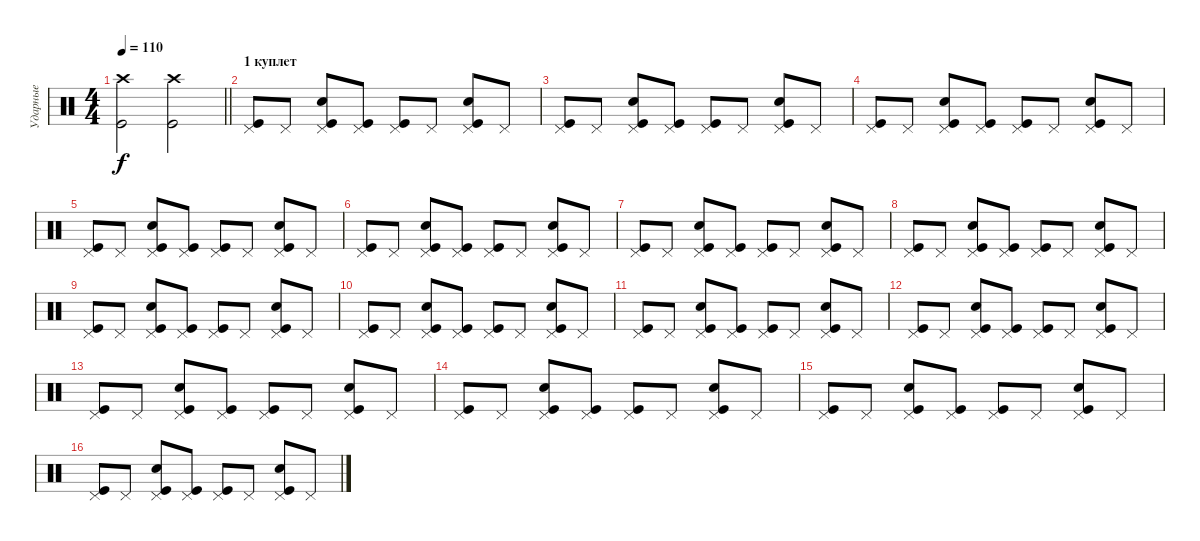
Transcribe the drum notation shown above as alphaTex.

\track ("Ударные" "Ударные") {instrument percussion}
\staff {score}
\articulation defaults
\ts (4 4)
\tempo 110
\clef neutral
\barLineRight lightlight
\ks c
("Kick (hit)" "Crash high (hit)").2{dy f} ("Kick (hit)" "Crash high (hit)").2 |
\section ("" "1 куплет")
("Pedal Hi-Hat (hit)" "Kick (hit)").8 "Pedal Hi-Hat (hit)".8 ("Pedal Hi-Hat (hit)" "Kick (hit)" "Snare (hit) 2").8 ("Pedal Hi-Hat (hit)" "Kick (hit)").8 ("Pedal Hi-Hat (hit)" "Kick (hit)").8 "Pedal Hi-Hat (hit)".8 ("Pedal Hi-Hat (hit)" "Kick (hit)" "Snare (hit) 2").8 "Pedal Hi-Hat (hit)".8 |
("Pedal Hi-Hat (hit)" "Kick (hit)").8 "Pedal Hi-Hat (hit)".8 ("Pedal Hi-Hat (hit)" "Kick (hit)" "Snare (hit) 2").8 ("Pedal Hi-Hat (hit)" "Kick (hit)").8 ("Pedal Hi-Hat (hit)" "Kick (hit)").8 "Pedal Hi-Hat (hit)".8 ("Pedal Hi-Hat (hit)" "Kick (hit)" "Snare (hit) 2").8 "Pedal Hi-Hat (hit)".8 |
("Pedal Hi-Hat (hit)" "Kick (hit)").8 "Pedal Hi-Hat (hit)".8 ("Pedal Hi-Hat (hit)" "Kick (hit)" "Snare (hit) 2").8 ("Pedal Hi-Hat (hit)" "Kick (hit)").8 ("Pedal Hi-Hat (hit)" "Kick (hit)").8 "Pedal Hi-Hat (hit)".8 ("Pedal Hi-Hat (hit)" "Kick (hit)" "Snare (hit) 2").8 "Pedal Hi-Hat (hit)".8 |
("Pedal Hi-Hat (hit)" "Kick (hit)").8 "Pedal Hi-Hat (hit)".8 ("Pedal Hi-Hat (hit)" "Kick (hit)" "Snare (hit) 2").8 ("Pedal Hi-Hat (hit)" "Kick (hit)").8 ("Pedal Hi-Hat (hit)" "Kick (hit)").8 "Pedal Hi-Hat (hit)".8 ("Pedal Hi-Hat (hit)" "Kick (hit)" "Snare (hit) 2").8 "Pedal Hi-Hat (hit)".8 |
("Pedal Hi-Hat (hit)" "Kick (hit)").8 "Pedal Hi-Hat (hit)".8 ("Pedal Hi-Hat (hit)" "Kick (hit)" "Snare (hit) 2").8 ("Pedal Hi-Hat (hit)" "Kick (hit)").8 ("Pedal Hi-Hat (hit)" "Kick (hit)").8 "Pedal Hi-Hat (hit)".8 ("Pedal Hi-Hat (hit)" "Kick (hit)" "Snare (hit) 2").8 "Pedal Hi-Hat (hit)".8 |
("Pedal Hi-Hat (hit)" "Kick (hit)").8 "Pedal Hi-Hat (hit)".8 ("Pedal Hi-Hat (hit)" "Kick (hit)" "Snare (hit) 2").8 ("Pedal Hi-Hat (hit)" "Kick (hit)").8 ("Pedal Hi-Hat (hit)" "Kick (hit)").8 "Pedal Hi-Hat (hit)".8 ("Pedal Hi-Hat (hit)" "Kick (hit)" "Snare (hit) 2").8 "Pedal Hi-Hat (hit)".8 |
("Pedal Hi-Hat (hit)" "Kick (hit)").8 "Pedal Hi-Hat (hit)".8 ("Pedal Hi-Hat (hit)" "Kick (hit)" "Snare (hit) 2").8 ("Pedal Hi-Hat (hit)" "Kick (hit)").8 ("Pedal Hi-Hat (hit)" "Kick (hit)").8 "Pedal Hi-Hat (hit)".8 ("Pedal Hi-Hat (hit)" "Kick (hit)" "Snare (hit) 2").8 "Pedal Hi-Hat (hit)".8 |
("Pedal Hi-Hat (hit)" "Kick (hit)").8 "Pedal Hi-Hat (hit)".8 ("Pedal Hi-Hat (hit)" "Kick (hit)" "Snare (hit) 2").8 ("Pedal Hi-Hat (hit)" "Kick (hit)").8 ("Pedal Hi-Hat (hit)" "Kick (hit)").8 "Pedal Hi-Hat (hit)".8 ("Pedal Hi-Hat (hit)" "Kick (hit)" "Snare (hit) 2").8 "Pedal Hi-Hat (hit)".8 |
("Pedal Hi-Hat (hit)" "Kick (hit)").8 "Pedal Hi-Hat (hit)".8 ("Pedal Hi-Hat (hit)" "Kick (hit)" "Snare (hit) 2").8 ("Pedal Hi-Hat (hit)" "Kick (hit)").8 ("Pedal Hi-Hat (hit)" "Kick (hit)").8 "Pedal Hi-Hat (hit)".8 ("Pedal Hi-Hat (hit)" "Kick (hit)" "Snare (hit) 2").8 "Pedal Hi-Hat (hit)".8 |
("Pedal Hi-Hat (hit)" "Kick (hit)").8 "Pedal Hi-Hat (hit)".8 ("Pedal Hi-Hat (hit)" "Kick (hit)" "Snare (hit) 2").8 ("Pedal Hi-Hat (hit)" "Kick (hit)").8 ("Pedal Hi-Hat (hit)" "Kick (hit)").8 "Pedal Hi-Hat (hit)".8 ("Pedal Hi-Hat (hit)" "Kick (hit)" "Snare (hit) 2").8 "Pedal Hi-Hat (hit)".8 |
("Pedal Hi-Hat (hit)" "Kick (hit)").8 "Pedal Hi-Hat (hit)".8 ("Pedal Hi-Hat (hit)" "Kick (hit)" "Snare (hit) 2").8 ("Pedal Hi-Hat (hit)" "Kick (hit)").8 ("Pedal Hi-Hat (hit)" "Kick (hit)").8 "Pedal Hi-Hat (hit)".8 ("Pedal Hi-Hat (hit)" "Kick (hit)" "Snare (hit) 2").8 "Pedal Hi-Hat (hit)".8 |
("Pedal Hi-Hat (hit)" "Kick (hit)").8 "Pedal Hi-Hat (hit)".8 ("Pedal Hi-Hat (hit)" "Kick (hit)" "Snare (hit) 2").8 ("Pedal Hi-Hat (hit)" "Kick (hit)").8 ("Pedal Hi-Hat (hit)" "Kick (hit)").8 "Pedal Hi-Hat (hit)".8 ("Pedal Hi-Hat (hit)" "Kick (hit)" "Snare (hit) 2").8 "Pedal Hi-Hat (hit)".8 |
("Pedal Hi-Hat (hit)" "Kick (hit)").8 "Pedal Hi-Hat (hit)".8 ("Pedal Hi-Hat (hit)" "Kick (hit)" "Snare (hit) 2").8 ("Pedal Hi-Hat (hit)" "Kick (hit)").8 ("Pedal Hi-Hat (hit)" "Kick (hit)").8 "Pedal Hi-Hat (hit)".8 ("Pedal Hi-Hat (hit)" "Kick (hit)" "Snare (hit) 2").8 "Pedal Hi-Hat (hit)".8 |
("Pedal Hi-Hat (hit)" "Kick (hit)").8 "Pedal Hi-Hat (hit)".8 ("Pedal Hi-Hat (hit)" "Kick (hit)" "Snare (hit) 2").8 ("Pedal Hi-Hat (hit)" "Kick (hit)").8 ("Pedal Hi-Hat (hit)" "Kick (hit)").8 "Pedal Hi-Hat (hit)".8 ("Pedal Hi-Hat (hit)" "Kick (hit)" "Snare (hit) 2").8 "Pedal Hi-Hat (hit)".8 |
("Pedal Hi-Hat (hit)" "Kick (hit)").8 "Pedal Hi-Hat (hit)".8 ("Pedal Hi-Hat (hit)" "Kick (hit)" "Snare (hit) 2").8 ("Pedal Hi-Hat (hit)" "Kick (hit)").8 ("Pedal Hi-Hat (hit)" "Kick (hit)").8 "Pedal Hi-Hat (hit)".8 ("Pedal Hi-Hat (hit)" "Kick (hit)" "Snare (hit) 2").8 "Pedal Hi-Hat (hit)".8
